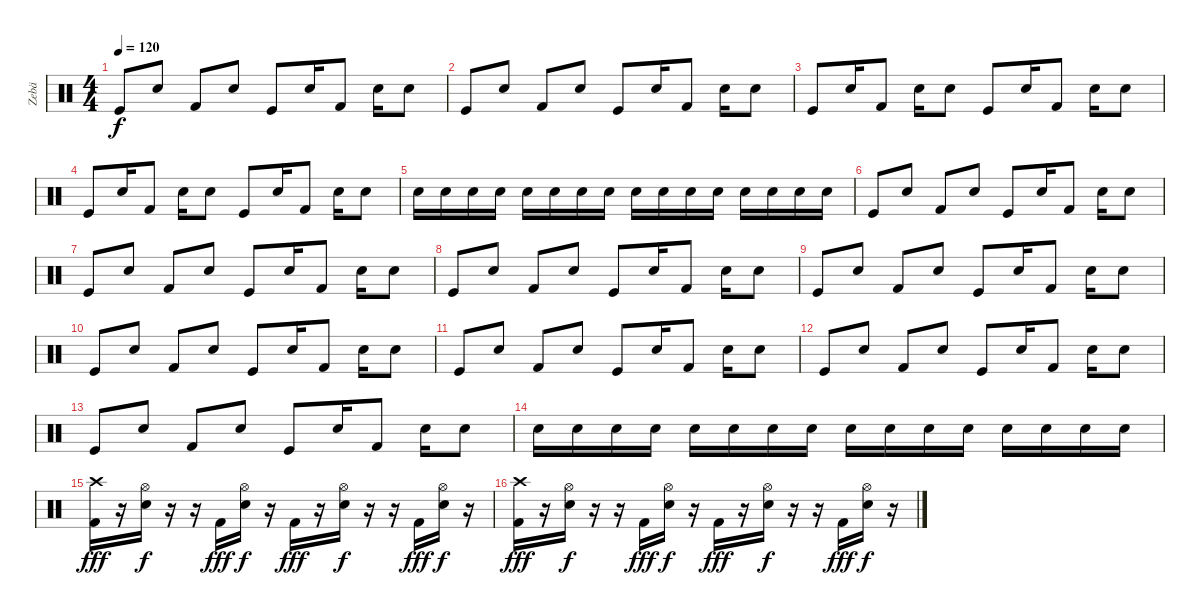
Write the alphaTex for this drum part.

\track ("Zebä" "Zebä") {instrument percussion}
\staff {score}
\articulation defaults
\ts (4 4)
\tempo 120
\clef neutral
\ks c "Kick (hit)".8{dy f} "Snare (hit) 2".8 "Kick (hit) 2".8 "Electric Snare (hit)".8 "Kick (hit)".8 "Snare (hit) 2".16 "Kick (hit) 2".8 "Electric Snare (hit)".16 "Snare (hit) 2".8
|
"Kick (hit)".8 "Snare (hit) 2".8 "Kick (hit) 2".8 "Electric Snare (hit)".8 "Kick (hit)".8 "Snare (hit) 2".16 "Kick (hit) 2".8 "Electric Snare (hit)".16 "Snare (hit) 2".8 |
"Kick (hit)".8 "Snare (hit) 2".16 "Kick (hit) 2".8 "Electric Snare (hit)".16 "Snare (hit) 2".8 "Kick (hit)".8 "Snare (hit) 2".16 "Kick (hit) 2".8 "Electric Snare (hit)".16 "Snare (hit) 2".8 |
"Kick (hit)".8 "Snare (hit) 2".16 "Kick (hit) 2".8 "Electric Snare (hit)".16 "Snare (hit) 2".8 "Kick (hit)".8 "Snare (hit) 2".16 "Kick (hit) 2".8 "Electric Snare (hit)".16 "Snare (hit) 2".8 |
"Snare (hit) 2".16 "Snare (hit) 2".16 "Snare (hit) 2".16 "Snare (hit) 2".16 "Snare (hit) 2".16 "Snare (hit) 2".16 "Snare (hit) 2".16 "Snare (hit) 2".16 "Electric Snare (hit)".16 "Electric Snare (hit)".16 "Electric Snare (hit)".16 "Electric Snare (hit)".16 "Electric Snare (hit)".16 "Electric Snare (hit)".16 "Electric Snare (hit)".16 "Electric Snare (hit)".16 |
"Kick (hit)".8 "Snare (hit) 2".8 "Kick (hit) 2".8 "Electric Snare (hit)".8 "Kick (hit)".8 "Snare (hit) 2".16 "Kick (hit) 2".8 "Electric Snare (hit)".16 "Snare (hit) 2".8 |
"Kick (hit)".8 "Snare (hit) 2".8 "Kick (hit) 2".8 "Electric Snare (hit)".8 "Kick (hit)".8 "Snare (hit) 2".16 "Kick (hit) 2".8 "Electric Snare (hit)".16 "Snare (hit) 2".8 |
"Kick (hit)".8 "Snare (hit) 2".8 "Kick (hit) 2".8 "Electric Snare (hit)".8 "Kick (hit)".8 "Snare (hit) 2".16 "Kick (hit) 2".8 "Electric Snare (hit)".16 "Snare (hit) 2".8 |
"Kick (hit)".8 "Snare (hit) 2".8 "Kick (hit) 2".8 "Electric Snare (hit)".8 "Kick (hit)".8 "Snare (hit) 2".16 "Kick (hit) 2".8 "Electric Snare (hit)".16 "Snare (hit) 2".8 |
"Kick (hit)".8 "Snare (hit) 2".8 "Kick (hit) 2".8 "Electric Snare (hit)".8 "Kick (hit)".8 "Snare (hit) 2".16 "Kick (hit) 2".8 "Electric Snare (hit)".16 "Snare (hit) 2".8 |
"Kick (hit)".8 "Snare (hit) 2".8 "Kick (hit) 2".8 "Electric Snare (hit)".8 "Kick (hit)".8 "Snare (hit) 2".16 "Kick (hit) 2".8 "Electric Snare (hit)".16 "Snare (hit) 2".8 |
"Kick (hit)".8 "Snare (hit) 2".8 "Kick (hit) 2".8 "Electric Snare (hit)".8 "Kick (hit)".8 "Snare (hit) 2".16 "Kick (hit) 2".8 "Electric Snare (hit)".16 "Snare (hit) 2".8 |
"Kick (hit)".8 "Snare (hit) 2".8 "Kick (hit) 2".8 "Electric Snare (hit)".8 "Kick (hit)".8 "Snare (hit) 2".16 "Kick (hit) 2".8 "Electric Snare (hit)".16 "Snare (hit) 2".8 |
"Snare (hit) 2".16 "Snare (hit) 2".16 "Snare (hit) 2".16 "Snare (hit) 2".16 "Snare (hit) 2".16 "Snare (hit) 2".16 "Snare (hit) 2".16 "Snare (hit) 2".16 "Electric Snare (hit)".16 "Electric Snare (hit)".16 "Electric Snare (hit)".16 "Electric Snare (hit)".16 "Electric Snare (hit)".16 "Electric Snare (hit)".16 "Electric Snare (hit)".16 "Electric Snare (hit)".16 |
("Kick (hit) 2" "Crash high (hit)").16{dy fff} r.16 ("Electric Snare (hit)" "Hi-Hat (open)").16{dy f} r.16 r.16 "Kick (hit) 2".16{dy fff} ("Electric Snare (hit)" "Hi-Hat (open)").16{dy f} r.16 "Kick (hit) 2".16{dy fff} r.16 ("Electric Snare (hit)" "Hi-Hat (open)").16{dy f} r.16 r.16 "Kick (hit) 2".16{dy fff} ("Electric Snare (hit)" "Hi-Hat (open)").16{dy f} r.16 |
("Kick (hit) 2" "Crash high (hit)").16{dy fff} r.16 ("Electric Snare (hit)" "Hi-Hat (open)").16{dy f} r.16 r.16 "Kick (hit) 2".16{dy fff} ("Electric Snare (hit)" "Hi-Hat (open)").16{dy f} r.16 "Kick (hit) 2".16{dy fff} r.16 ("Electric Snare (hit)" "Hi-Hat (open)").16{dy f} r.16 r.16 "Kick (hit) 2".16{dy fff} ("Electric Snare (hit)" "Hi-Hat (open)").16{dy f} r.16
